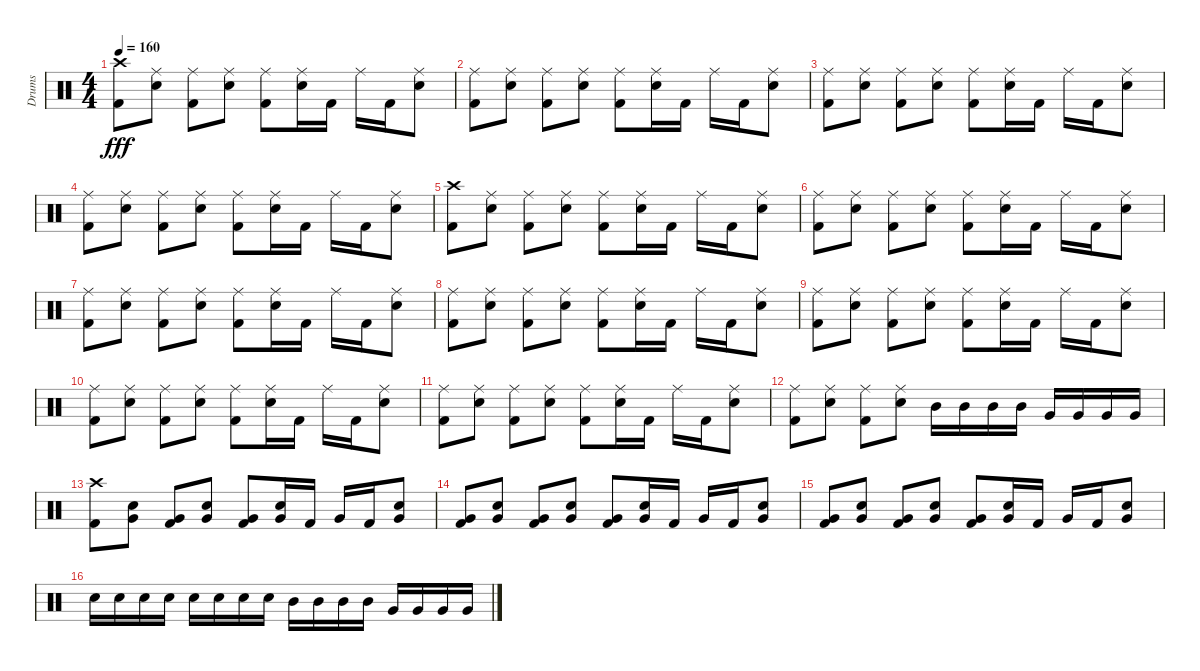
\track ("Drums" "Drums") {instrument percussion}
\staff {score}
\articulation defaults
\ts (4 4)
\tempo 160
\clef neutral
\ks c
("Crash high (hit)" "Kick (hit) 2").8{dy fff} ("Ride (middle)" "Electric Snare (hit)").8 ("Ride (middle)" "Kick (hit) 2").8 ("Ride (middle)" "Electric Snare (hit)").8 ("Ride (middle)" "Kick (hit) 2").8 ("Ride (middle)" "Electric Snare (hit)").16 "Kick (hit) 2".16 "Ride (middle)".16 "Kick (hit) 2".16 ("Ride (middle)" "Electric Snare (hit)").8 |
("Ride (middle)" "Kick (hit) 2").8 ("Ride (middle)" "Electric Snare (hit)").8 ("Ride (middle)" "Kick (hit) 2").8 ("Ride (middle)" "Electric Snare (hit)").8 ("Ride (middle)" "Kick (hit) 2").8 ("Ride (middle)" "Electric Snare (hit)").16 "Kick (hit) 2".16 "Ride (middle)".16 "Kick (hit) 2".16 ("Ride (middle)" "Electric Snare (hit)").8 |
("Ride (middle)" "Kick (hit) 2").8 ("Ride (middle)" "Electric Snare (hit)").8 ("Ride (middle)" "Kick (hit) 2").8 ("Ride (middle)" "Electric Snare (hit)").8 ("Ride (middle)" "Kick (hit) 2").8 ("Ride (middle)" "Electric Snare (hit)").16 "Kick (hit) 2".16 "Ride (middle)".16 "Kick (hit) 2".16 ("Ride (middle)" "Electric Snare (hit)").8 |
("Ride (middle)" "Kick (hit) 2").8 ("Ride (middle)" "Electric Snare (hit)").8 ("Ride (middle)" "Kick (hit) 2").8 ("Ride (middle)" "Electric Snare (hit)").8 ("Ride (middle)" "Kick (hit) 2").8 ("Ride (middle)" "Electric Snare (hit)").16 "Kick (hit) 2".16 "Ride (middle)".16 "Kick (hit) 2".16 ("Ride (middle)" "Electric Snare (hit)").8 |
("Crash high (hit)" "Kick (hit) 2").8 ("Ride (middle)" "Electric Snare (hit)").8 ("Ride (middle)" "Kick (hit) 2").8 ("Ride (middle)" "Electric Snare (hit)").8 ("Ride (middle)" "Kick (hit) 2").8 ("Ride (middle)" "Electric Snare (hit)").16 "Kick (hit) 2".16 "Ride (middle)".16 "Kick (hit) 2".16 ("Ride (middle)" "Electric Snare (hit)").8 |
("Ride (middle)" "Kick (hit) 2").8 ("Ride (middle)" "Electric Snare (hit)").8 ("Ride (middle)" "Kick (hit) 2").8 ("Ride (middle)" "Electric Snare (hit)").8 ("Ride (middle)" "Kick (hit) 2").8 ("Ride (middle)" "Electric Snare (hit)").16 "Kick (hit) 2".16 "Ride (middle)".16 "Kick (hit) 2".16 ("Ride (middle)" "Electric Snare (hit)").8 |
("Ride (middle)" "Kick (hit) 2").8 ("Ride (middle)" "Electric Snare (hit)").8 ("Ride (middle)" "Kick (hit) 2").8 ("Ride (middle)" "Electric Snare (hit)").8 ("Ride (middle)" "Kick (hit) 2").8 ("Ride (middle)" "Electric Snare (hit)").16 "Kick (hit) 2".16 "Ride (middle)".16 "Kick (hit) 2".16 ("Ride (middle)" "Electric Snare (hit)").8 |
("Ride (middle)" "Kick (hit) 2").8 ("Ride (middle)" "Electric Snare (hit)").8 ("Ride (middle)" "Kick (hit) 2").8 ("Ride (middle)" "Electric Snare (hit)").8 ("Ride (middle)" "Kick (hit) 2").8 ("Ride (middle)" "Electric Snare (hit)").16 "Kick (hit) 2".16 "Ride (middle)".16 "Kick (hit) 2".16 ("Ride (middle)" "Electric Snare (hit)").8 |
("Ride (middle)" "Kick (hit) 2").8 ("Ride (middle)" "Electric Snare (hit)").8 ("Ride (middle)" "Kick (hit) 2").8 ("Ride (middle)" "Electric Snare (hit)").8 ("Ride (middle)" "Kick (hit) 2").8 ("Ride (middle)" "Electric Snare (hit)").16 "Kick (hit) 2".16 "Ride (middle)".16 "Kick (hit) 2".16 ("Ride (middle)" "Electric Snare (hit)").8 |
("Ride (middle)" "Kick (hit) 2").8 ("Ride (middle)" "Electric Snare (hit)").8 ("Ride (middle)" "Kick (hit) 2").8 ("Ride (middle)" "Electric Snare (hit)").8 ("Ride (middle)" "Kick (hit) 2").8 ("Ride (middle)" "Electric Snare (hit)").16 "Kick (hit) 2".16 "Ride (middle)".16 "Kick (hit) 2".16 ("Ride (middle)" "Electric Snare (hit)").8 |
("Ride (middle)" "Kick (hit) 2").8 ("Ride (middle)" "Electric Snare (hit)").8 ("Ride (middle)" "Kick (hit) 2").8 ("Ride (middle)" "Electric Snare (hit)").8 ("Ride (middle)" "Kick (hit) 2").8 ("Ride (middle)" "Electric Snare (hit)").16 "Kick (hit) 2".16 "Ride (middle)".16 "Kick (hit) 2".16 ("Ride (middle)" "Electric Snare (hit)").8 |
("Ride (middle)" "Kick (hit) 2").8 ("Ride (middle)" "Electric Snare (hit)").8 ("Ride (middle)" "Kick (hit) 2").8 ("Ride (middle)" "Electric Snare (hit)").8 "Mid Tom (hit)".16 "Mid Tom (hit)".16 "Mid Tom (hit)".16 "Mid Tom (hit)".16 "Very Low Tom (hit)".16 "Very Low Tom (hit)".16 "Very Low Tom (hit)".16 "Very Low Tom (hit)".16 |
("Crash high (hit)" "Kick (hit) 2").8 ("Electric Snare (hit)" "Very Low Tom (hit)").8 ("Very Low Tom (hit)" "Kick (hit) 2").8 ("Electric Snare (hit)" "Very Low Tom (hit)").8 ("Very Low Tom (hit)" "Kick (hit) 2").8 ("Electric Snare (hit)" "Very Low Tom (hit)").16 "Kick (hit) 2".16 "Very Low Tom (hit)".16 "Kick (hit) 2".16 ("Electric Snare (hit)" "Very Low Tom (hit)").8 |
("Very Low Tom (hit)" "Kick (hit) 2").8 ("Electric Snare (hit)" "Very Low Tom (hit)").8 ("Very Low Tom (hit)" "Kick (hit) 2").8 ("Electric Snare (hit)" "Very Low Tom (hit)").8 ("Very Low Tom (hit)" "Kick (hit) 2").8 ("Electric Snare (hit)" "Very Low Tom (hit)").16 "Kick (hit) 2".16 "Very Low Tom (hit)".16 "Kick (hit) 2".16 ("Electric Snare (hit)" "Very Low Tom (hit)").8 |
("Very Low Tom (hit)" "Kick (hit) 2").8 ("Electric Snare (hit)" "Very Low Tom (hit)").8 ("Very Low Tom (hit)" "Kick (hit) 2").8 ("Electric Snare (hit)" "Very Low Tom (hit)").8 ("Very Low Tom (hit)" "Kick (hit) 2").8 ("Electric Snare (hit)" "Very Low Tom (hit)").16 "Kick (hit) 2".16 "Very Low Tom (hit)".16 "Kick (hit) 2".16 ("Electric Snare (hit)" "Very Low Tom (hit)").8 |
"Electric Snare (hit)".16 "Electric Snare (hit)".16 "Electric Snare (hit)".16 "Electric Snare (hit)".16 "Electric Snare (hit)".16 "Electric Snare (hit)".16 "Electric Snare (hit)".16 "Electric Snare (hit)".16 "Mid Tom (hit)".16 "Mid Tom (hit)".16 "Mid Tom (hit)".16 "Mid Tom (hit)".16 "Very Low Tom (hit)".16 "Very Low Tom (hit)".16 "Very Low Tom (hit)".16 "Very Low Tom (hit)".16
